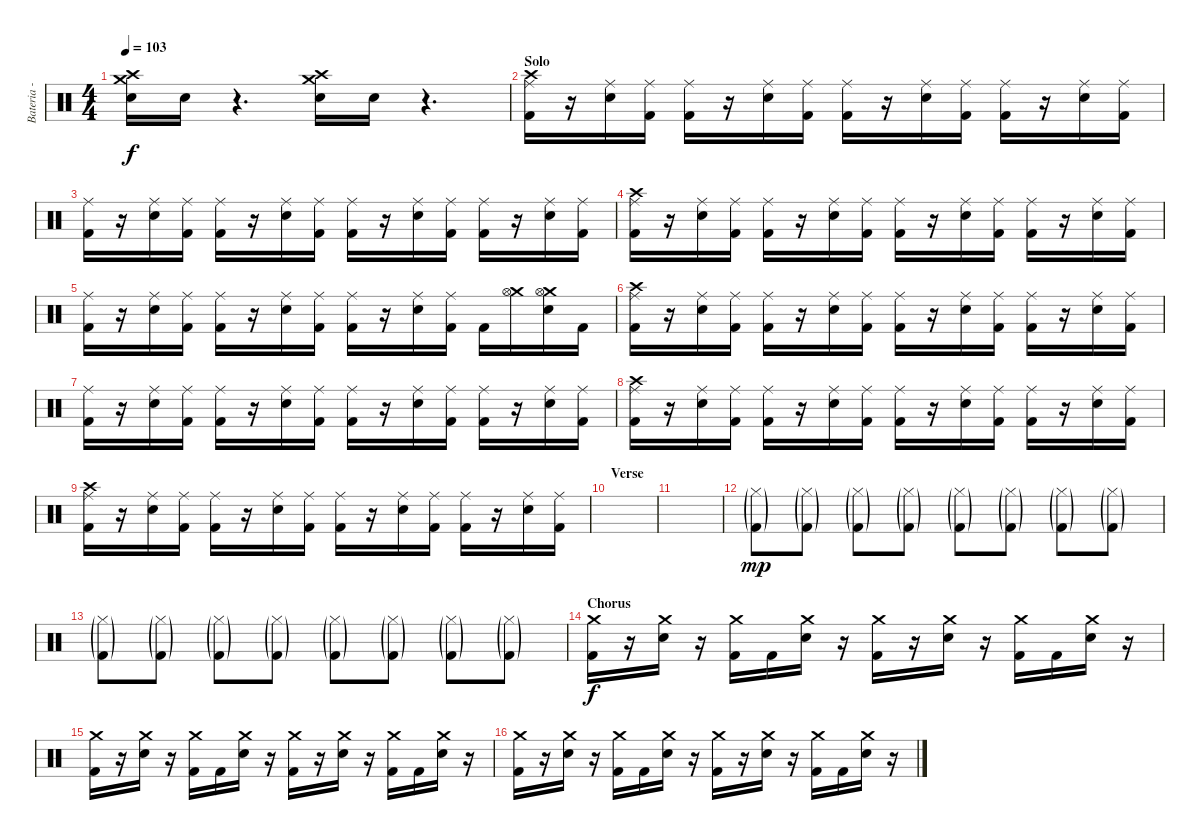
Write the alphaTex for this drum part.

\track ("Bateria - Larzon" "Bateria - ") {instrument percussion}
\staff {score}
\articulation defaults
\ts (4 4)
\tempo 103
\clef neutral
\ks c
("Crash high (hit)" "Crash medium (hit)" "Electric Snare (hit)").16{dy f} "Electric Snare (hit)".16 r.4{d} ("Crash high (hit)" "Crash medium (hit)" "Electric Snare (hit)").16 "Electric Snare (hit)".16 r.4{d} |
\section ("" "Solo")
("Kick (hit) 2" "Crash high (hit)" "Ride (middle)").16 r.16 ("Snare (hit) 2" "Ride (middle)").16 ("Kick (hit) 2" "Ride (middle)").16 ("Kick (hit) 2" "Ride (middle)").16 r.16 ("Snare (hit) 2" "Ride (middle)").16 ("Kick (hit) 2" "Ride (middle)").16 ("Kick (hit) 2" "Ride (middle)").16 r.16 ("Snare (hit) 2" "Ride (middle)").16 ("Kick (hit) 2" "Ride (middle)").16 ("Kick (hit) 2" "Ride (middle)").16 r.16 ("Snare (hit) 2" "Ride (middle)").16 ("Kick (hit) 2" "Ride (middle)").16 |
("Kick (hit) 2" "Ride (middle)").16 r.16 ("Snare (hit) 2" "Ride (middle)").16 ("Kick (hit) 2" "Ride (middle)").16 ("Kick (hit) 2" "Ride (middle)").16 r.16 ("Snare (hit) 2" "Ride (middle)").16 ("Kick (hit) 2" "Ride (middle)").16 ("Kick (hit) 2" "Ride (middle)").16 r.16 ("Snare (hit) 2" "Ride (middle)").16 ("Kick (hit) 2" "Ride (middle)").16 ("Kick (hit) 2" "Ride (middle)").16 r.16 ("Snare (hit) 2" "Ride (middle)").16 ("Kick (hit) 2" "Ride (middle)").16 |
("Kick (hit) 2" "Crash high (hit)" "Ride (middle)").16 r.16 ("Snare (hit) 2" "Ride (middle)").16 ("Kick (hit) 2" "Ride (middle)").16 ("Kick (hit) 2" "Ride (middle)").16 r.16 ("Snare (hit) 2" "Ride (middle)").16 ("Kick (hit) 2" "Ride (middle)").16 ("Kick (hit) 2" "Ride (middle)").16 r.16 ("Snare (hit) 2" "Ride (middle)").16 ("Kick (hit) 2" "Ride (middle)").16 ("Kick (hit) 2" "Ride (middle)").16 r.16 ("Snare (hit) 2" "Ride (middle)").16 ("Kick (hit) 2" "Ride (middle)").16 |
("Kick (hit) 2" "Ride (middle)").16 r.16 ("Snare (hit) 2" "Ride (middle)").16 ("Kick (hit) 2" "Ride (middle)").16 ("Kick (hit) 2" "Ride (middle)").16 r.16 ("Snare (hit) 2" "Ride (middle)").16 ("Kick (hit) 2" "Ride (middle)").16 ("Kick (hit) 2" "Ride (middle)").16 r.16 ("Snare (hit) 2" "Ride (middle)").16 ("Kick (hit) 2" "Ride (middle)").16 "Kick (hit) 2".16 ("Crash medium (hit)" "Hi-Hat (open)").16 ("Snare (hit) 2" "Crash medium (hit)" "Hi-Hat (open)").16 "Kick (hit) 2".16 |
("Kick (hit) 2" "Crash high (hit)" "Ride (middle)").16 r.16 ("Snare (hit) 2" "Ride (middle)").16 ("Kick (hit) 2" "Ride (middle)").16 ("Kick (hit) 2" "Ride (middle)").16 r.16 ("Snare (hit) 2" "Ride (middle)").16 ("Kick (hit) 2" "Ride (middle)").16 ("Kick (hit) 2" "Ride (middle)").16 r.16 ("Snare (hit) 2" "Ride (middle)").16 ("Kick (hit) 2" "Ride (middle)").16 ("Kick (hit) 2" "Ride (middle)").16 r.16 ("Snare (hit) 2" "Ride (middle)").16 ("Kick (hit) 2" "Ride (middle)").16 |
("Kick (hit) 2" "Ride (middle)").16 r.16 ("Snare (hit) 2" "Ride (middle)").16 ("Kick (hit) 2" "Ride (middle)").16 ("Kick (hit) 2" "Ride (middle)").16 r.16 ("Snare (hit) 2" "Ride (middle)").16 ("Kick (hit) 2" "Ride (middle)").16 ("Kick (hit) 2" "Ride (middle)").16 r.16 ("Snare (hit) 2" "Ride (middle)").16 ("Kick (hit) 2" "Ride (middle)").16 ("Kick (hit) 2" "Ride (middle)").16 r.16 ("Snare (hit) 2" "Ride (middle)").16 ("Kick (hit) 2" "Ride (middle)").16 |
("Kick (hit) 2" "Crash high (hit)" "Ride (middle)").16 r.16 ("Snare (hit) 2" "Ride (middle)").16 ("Kick (hit) 2" "Ride (middle)").16 ("Kick (hit) 2" "Ride (middle)").16 r.16 ("Snare (hit) 2" "Ride (middle)").16 ("Kick (hit) 2" "Ride (middle)").16 ("Kick (hit) 2" "Ride (middle)").16 r.16 ("Snare (hit) 2" "Ride (middle)").16 ("Kick (hit) 2" "Ride (middle)").16 ("Kick (hit) 2" "Ride (middle)").16 r.16 ("Snare (hit) 2" "Ride (middle)").16 ("Kick (hit) 2" "Ride (middle)").16 |
("Kick (hit) 2" "Crash high (hit)" "Ride (middle)").16 r.16 ("Snare (hit) 2" "Ride (middle)").16 ("Kick (hit) 2" "Ride (middle)").16 ("Kick (hit) 2" "Ride (middle)").16 r.16 ("Snare (hit) 2" "Ride (middle)").16 ("Kick (hit) 2" "Ride (middle)").16 ("Kick (hit) 2" "Ride (middle)").16 r.16 ("Snare (hit) 2" "Ride (middle)").16 ("Kick (hit) 2" "Ride (middle)").16 ("Kick (hit) 2" "Ride (middle)").16 r.16 ("Snare (hit) 2" "Ride (middle)").16 ("Kick (hit) 2" "Ride (middle)").16 |
\section ("" "Verse")
|
|
("Kick (hit) 2"{g} "Hi-Hat (closed)"{g}).8{dy mp} ("Kick (hit) 2"{g} "Hi-Hat (closed)"{g}).8 ("Kick (hit) 2"{g} "Hi-Hat (closed)"{g}).8 ("Kick (hit) 2"{g} "Hi-Hat (closed)"{g}).8 ("Kick (hit) 2"{g} "Hi-Hat (closed)"{g}).8 ("Kick (hit) 2"{g} "Hi-Hat (closed)"{g}).8 ("Kick (hit) 2"{g} "Hi-Hat (closed)"{g}).8 ("Kick (hit) 2"{g} "Hi-Hat (closed)"{g}).8 |
("Kick (hit) 2"{g} "Hi-Hat (closed)"{g}).8 ("Kick (hit) 2"{g} "Hi-Hat (closed)"{g}).8 ("Kick (hit) 2"{g} "Hi-Hat (closed)"{g}).8 ("Kick (hit) 2"{g} "Hi-Hat (closed)"{g}).8 ("Kick (hit) 2"{g} "Hi-Hat (closed)"{g}).8 ("Kick (hit) 2"{g} "Hi-Hat (closed)"{g}).8 ("Kick (hit) 2"{g} "Hi-Hat (closed)"{g}).8 ("Kick (hit) 2"{g} "Hi-Hat (closed)"{g}).8 |
\section ("" "Chorus")
("Kick (hit) 2" "Crash medium (hit)").16{dy f} r.16 ("Snare (hit) 2" "Crash medium (hit)").16 r.16 ("Kick (hit) 2" "Crash medium (hit)").16 "Kick (hit) 2".16 ("Snare (hit) 2" "Crash medium (hit)").16 r.16 ("Kick (hit) 2" "Crash medium (hit)").16 r.16 ("Snare (hit) 2" "Crash medium (hit)").16 r.16 ("Kick (hit) 2" "Crash medium (hit)").16 "Kick (hit) 2".16 ("Snare (hit) 2" "Crash medium (hit)").16 r.16 |
("Kick (hit) 2" "Crash medium (hit)").16 r.16 ("Snare (hit) 2" "Crash medium (hit)").16 r.16 ("Kick (hit) 2" "Crash medium (hit)").16 "Kick (hit) 2".16 ("Snare (hit) 2" "Crash medium (hit)").16 r.16 ("Kick (hit) 2" "Crash medium (hit)").16 r.16 ("Snare (hit) 2" "Crash medium (hit)").16 r.16 ("Kick (hit) 2" "Crash medium (hit)").16 "Kick (hit) 2".16 ("Snare (hit) 2" "Crash medium (hit)").16 r.16 |
("Kick (hit) 2" "Crash medium (hit)").16 r.16 ("Snare (hit) 2" "Crash medium (hit)").16 r.16 ("Kick (hit) 2" "Crash medium (hit)").16 "Kick (hit) 2".16 ("Snare (hit) 2" "Crash medium (hit)").16 r.16 ("Kick (hit) 2" "Crash medium (hit)").16 r.16 ("Snare (hit) 2" "Crash medium (hit)").16 r.16 ("Kick (hit) 2" "Crash medium (hit)").16 "Kick (hit) 2".16 ("Snare (hit) 2" "Crash medium (hit)").16 r.16
